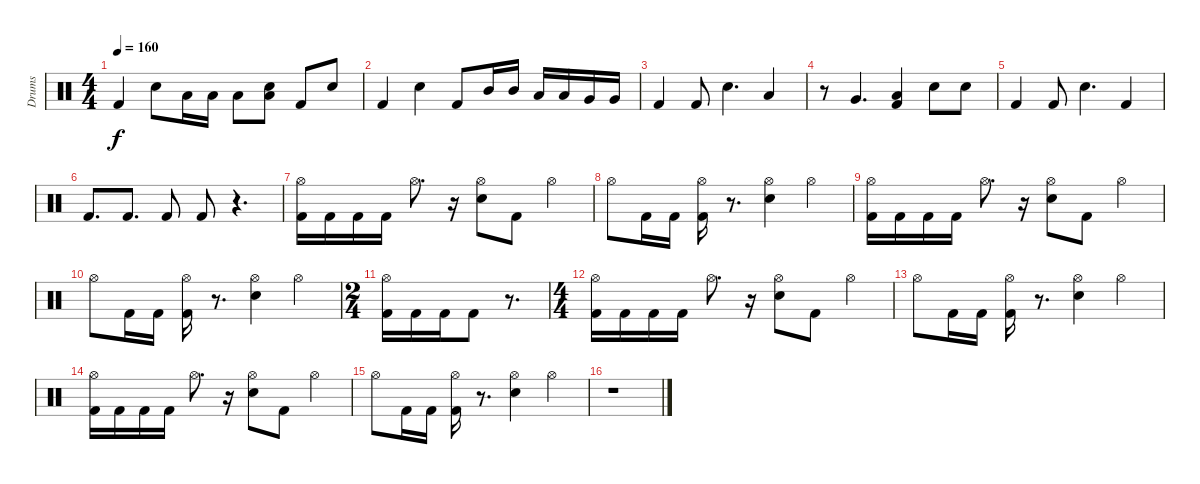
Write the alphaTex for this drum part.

\track ("Drums" "Drums") {instrument percussion}
\staff {score}
\articulation defaults
\ts (4 4)
\tempo 160
\clef neutral
\ks c "Kick (hit) 2".4{dy f} "Snare (hit) 2".8 "Low Tom (hit)".16 "Low Tom (hit)".16 "Low Tom (hit)".8
("Low Tom (hit)" "Snare (hit) 2").8 "Kick (hit) 2".8 "Snare (hit) 2".8 |
"Kick (hit) 2".4 "Snare (hit) 2".4 "Kick (hit) 2".8 "Mid Tom (hit)".16 "Mid Tom (hit)".16 "Low Tom (hit)".16 "Low Tom (hit)".16 "Very Low Tom (hit)".16 "Very Low Tom (hit)".16 |
"Kick (hit) 2".4 "Kick (hit) 2".8 "Snare (hit) 2".4{d} "Low Tom (hit)".4 |
r.8 "Very Low Tom (hit)".4{d} ("Low Floor Tom (hit)" "Kick (hit) 2").4 "Snare (hit) 2".8 "Snare (hit) 2".8 |
"Kick (hit) 2".4 "Kick (hit) 2".8 "Snare (hit) 2".4{d} "Kick (hit) 2".4 |
"Kick (hit) 2".8{d} "Kick (hit) 2".8{d} "Kick (hit) 2".8 "Kick (hit) 2".8 r.4{d} |
("Hi-Hat (open)" "Kick (hit) 2").16 "Kick (hit) 2".16 "Kick (hit) 2".16 "Kick (hit) 2".16 "Hi-Hat (open)".8{d} r.16 ("Hi-Hat (open)" "Snare (hit) 2").8 "Kick (hit) 2".8 "Hi-Hat (open)".4 |
"Hi-Hat (open)".8 "Kick (hit) 2".16 "Kick (hit) 2".16 ("Hi-Hat (open)" "Kick (hit) 2").16 r.8{d} ("Hi-Hat (open)" "Snare (hit) 2").4 "Hi-Hat (open)".4 |
("Hi-Hat (open)" "Kick (hit) 2").16 "Kick (hit) 2".16 "Kick (hit) 2".16 "Kick (hit) 2".16 "Hi-Hat (open)".8{d} r.16 ("Hi-Hat (open)" "Snare (hit) 2").8 "Kick (hit) 2".8 "Hi-Hat (open)".4 |
"Hi-Hat (open)".8 "Kick (hit) 2".16 "Kick (hit) 2".16 ("Hi-Hat (open)" "Kick (hit) 2").16 r.8{d} ("Hi-Hat (open)" "Snare (hit) 2").4 "Hi-Hat (open)".4 |
\ts (2 4)
("Hi-Hat (open)" "Kick (hit) 2").16 "Kick (hit) 2".16 "Kick (hit) 2".16 "Kick (hit) 2".8 r.8{d} |
\ts (4 4)
("Hi-Hat (open)" "Kick (hit) 2").16 "Kick (hit) 2".16 "Kick (hit) 2".16 "Kick (hit) 2".16 "Hi-Hat (open)".8{d} r.16 ("Hi-Hat (open)" "Snare (hit) 2").8 "Kick (hit) 2".8 "Hi-Hat (open)".4 |
"Hi-Hat (open)".8 "Kick (hit) 2".16 "Kick (hit) 2".16 ("Hi-Hat (open)" "Kick (hit) 2").16 r.8{d} ("Hi-Hat (open)" "Snare (hit) 2").4 "Hi-Hat (open)".4 |
("Hi-Hat (open)" "Kick (hit) 2").16 "Kick (hit) 2".16 "Kick (hit) 2".16 "Kick (hit) 2".16 "Hi-Hat (open)".8{d} r.16 ("Hi-Hat (open)" "Snare (hit) 2").8 "Kick (hit) 2".8 "Hi-Hat (open)".4 |
"Hi-Hat (open)".8 "Kick (hit) 2".16 "Kick (hit) 2".16 ("Hi-Hat (open)" "Kick (hit) 2").16 r.8{d} ("Hi-Hat (open)" "Snare (hit) 2").4 "Hi-Hat (open)".4 |
r.1
